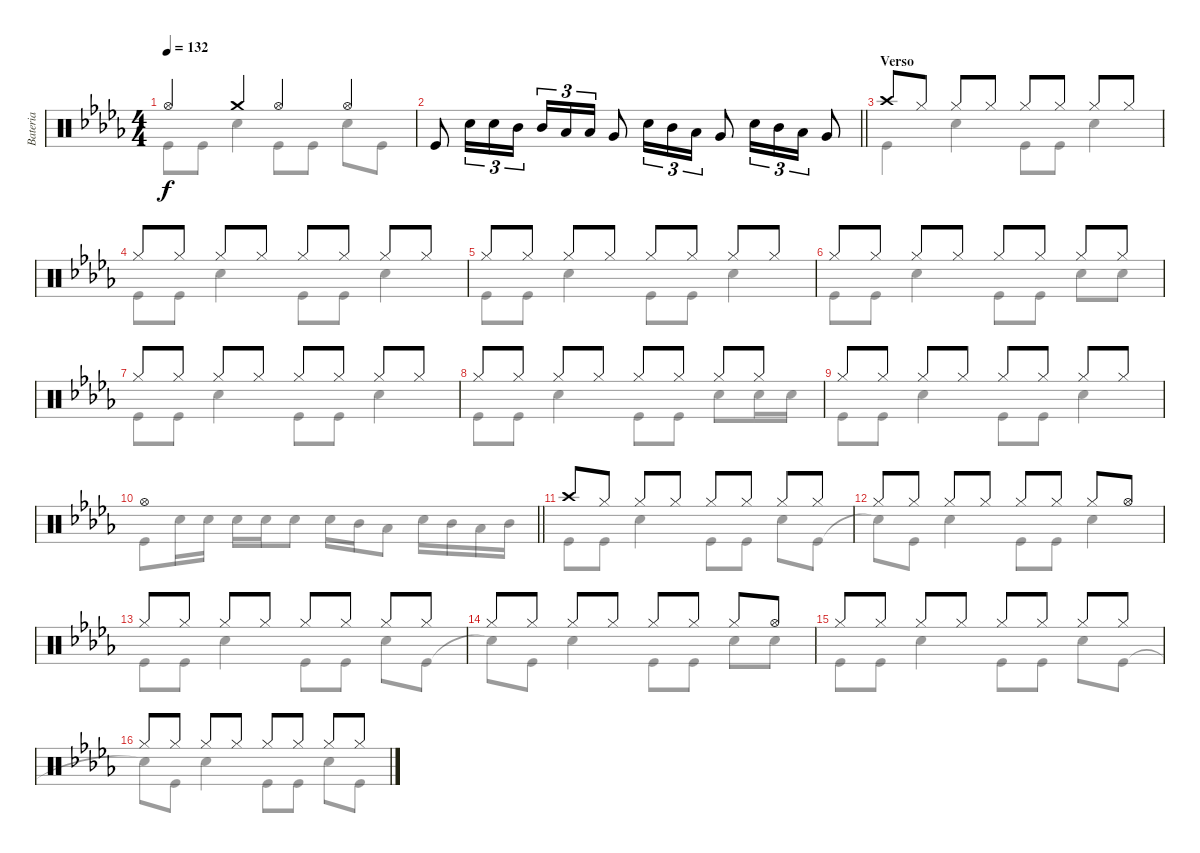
\track ("Bateria" "Bateria") {instrument percussion}
\staff {score}
\articulation defaults
\voice
\ts (4 4)
\tempo 132
\clef neutral
\ks db "Hi-Hat (open)".4{dy f} "Crash medium (hit)".4 "Hi-Hat (open)".4 "Hi-Hat (open)".4
|
\barLineRight lightlight "Kick (hit)".8 "Snare (hit) 2".16{tu (3 2)} "Snare (hit) 2".16{tu (3 2)} "Mid Tom (hit)".16{tu (3 2)} "Mid Tom (hit)".16{tu (3 2)} "Low Tom (hit)".16{tu (3 2)} "Low Tom (hit)".16{tu (3 2)} "Very Low Tom (hit)".8 "Snare (hit) 2".16{tu (3 2)} "Mid Tom (hit)".16{tu (3 2)} "Low Tom (hit)".16{tu (3 2)} "Very Low Tom (hit)".8 "Snare (hit) 2".16{tu (3 2)} "Mid Tom (hit)".16{tu (3 2)} "Low Tom (hit)".16{tu (3 2)} "Very Low Tom (hit)".8
|
\section ("" "Verso")
"Crash high (hit)".8 "Hi-Hat (closed)".8 "Hi-Hat (closed)".8 "Hi-Hat (closed)".8 "Hi-Hat (closed)".8 "Hi-Hat (closed)".8 "Hi-Hat (closed)".8 "Hi-Hat (closed)".8 |
"Hi-Hat (closed)".8 "Hi-Hat (closed)".8 "Hi-Hat (closed)".8 "Hi-Hat (closed)".8 "Hi-Hat (closed)".8 "Hi-Hat (closed)".8 "Hi-Hat (closed)".8 "Hi-Hat (closed)".8 |
"Hi-Hat (closed)".8 "Hi-Hat (closed)".8 "Hi-Hat (closed)".8 "Hi-Hat (closed)".8 "Hi-Hat (closed)".8 "Hi-Hat (closed)".8 "Hi-Hat (closed)".8 "Hi-Hat (closed)".8 |
"Hi-Hat (closed)".8 "Hi-Hat (closed)".8 "Hi-Hat (closed)".8 "Hi-Hat (closed)".8 "Hi-Hat (closed)".8 "Hi-Hat (closed)".8 "Hi-Hat (closed)".8 "Hi-Hat (closed)".8 |
"Hi-Hat (closed)".8 "Hi-Hat (closed)".8 "Hi-Hat (closed)".8 "Hi-Hat (closed)".8 "Hi-Hat (closed)".8 "Hi-Hat (closed)".8 "Hi-Hat (closed)".8 "Hi-Hat (closed)".8 |
"Hi-Hat (closed)".8 "Hi-Hat (closed)".8 "Hi-Hat (closed)".8 "Hi-Hat (closed)".8 "Hi-Hat (closed)".8 "Hi-Hat (closed)".8 "Hi-Hat (closed)".8 "Hi-Hat (closed)".8 |
"Hi-Hat (closed)".8 "Hi-Hat (closed)".8 "Hi-Hat (closed)".8 "Hi-Hat (closed)".8 "Hi-Hat (closed)".8 "Hi-Hat (closed)".8 "Hi-Hat (closed)".8 "Hi-Hat (closed)".8 |
\barLineRight lightlight "Hi-Hat (open)".1
|
"Crash high (hit)".8 "Hi-Hat (closed)".8 "Hi-Hat (closed)".8 "Hi-Hat (closed)".8 "Hi-Hat (closed)".8 "Hi-Hat (closed)".8 "Hi-Hat (closed)".8 "Hi-Hat (closed)".8 |
"Hi-Hat (closed)".8 "Hi-Hat (closed)".8 "Hi-Hat (closed)".8 "Hi-Hat (closed)".8 "Hi-Hat (closed)".8 "Hi-Hat (closed)".8 "Hi-Hat (closed)".8 "Hi-Hat (open)".8 |
"Hi-Hat (closed)".8 "Hi-Hat (closed)".8 "Hi-Hat (closed)".8 "Hi-Hat (closed)".8 "Hi-Hat (closed)".8 "Hi-Hat (closed)".8 "Hi-Hat (closed)".8 "Hi-Hat (closed)".8 |
"Hi-Hat (closed)".8 "Hi-Hat (closed)".8 "Hi-Hat (closed)".8 "Hi-Hat (closed)".8 "Hi-Hat (closed)".8 "Hi-Hat (closed)".8 "Hi-Hat (closed)".8 "Hi-Hat (open)".8 |
"Hi-Hat (closed)".8 "Hi-Hat (closed)".8 "Hi-Hat (closed)".8 "Hi-Hat (closed)".8 "Hi-Hat (closed)".8 "Hi-Hat (closed)".8 "Hi-Hat (closed)".8 "Hi-Hat (closed)".8 |
"Hi-Hat (closed)".8 "Hi-Hat (closed)".8 "Hi-Hat (closed)".8 "Hi-Hat (closed)".8 "Hi-Hat (closed)".8 "Hi-Hat (closed)".8 "Hi-Hat (closed)".8 "Hi-Hat (closed)".8
\voice
\clef neutral
\ottava regular
\simile none
\ks db "Kick (hit)".8{dy f} "Kick (hit)".8 "Snare (hit) 2".4 "Kick (hit)".8 "Kick (hit)".8 "Snare (hit) 2".8 "Kick (hit)".8
|
\barLineRight lightlight
|
"Kick (hit)".4 "Snare (hit) 2".4 "Kick (hit)".8 "Kick (hit)".8 "Snare (hit) 2".4 |
"Kick (hit)".8 "Kick (hit)".8 "Snare (hit) 2".4 "Kick (hit)".8 "Kick (hit)".8 "Snare (hit) 2".4 |
"Kick (hit)".8 "Kick (hit)".8 "Snare (hit) 2".4 "Kick (hit)".8 "Kick (hit)".8 "Snare (hit) 2".4 |
"Kick (hit)".8 "Kick (hit)".8 "Snare (hit) 2".4 "Kick (hit)".8 "Kick (hit)".8 "Snare (hit) 2".8 "Snare (hit) 2".8 |
"Kick (hit)".8 "Kick (hit)".8 "Snare (hit) 2".4 "Kick (hit)".8 "Kick (hit)".8 "Snare (hit) 2".4 |
"Kick (hit)".8 "Kick (hit)".8 "Snare (hit) 2".4 "Kick (hit)".8 "Kick (hit)".8 "Snare (hit) 2".8 "Snare (hit) 2".16 "Snare (hit) 2".16 |
"Kick (hit)".8 "Kick (hit)".8 "Snare (hit) 2".4 "Kick (hit)".8 "Kick (hit)".8 "Snare (hit) 2".4 |
\barLineRight lightlight "Kick (hit)".8 "Snare (hit) 2".16 "Snare (hit) 2".16 "Snare (hit) 2".16 "Snare (hit) 2".16 "Snare (hit) 2".8 "Snare (hit) 2".16 "Mid Tom (hit)".16 "Low Tom (hit)".8 "Snare (hit) 2".16 "Mid Tom (hit)".16 "Low Tom (hit)".16 "Mid Tom (hit)".16
|
"Kick (hit)".8 "Kick (hit)".8 "Snare (hit) 2".4 "Kick (hit)".8 "Kick (hit)".8 "Snare (hit) 2".8 "Kick (hit)".8 |
"Snare (hit)"{t}.8 "Kick (hit)".8 "Snare (hit) 2".4 "Kick (hit)".8 "Kick (hit)".8 "Snare (hit) 2".4 |
"Kick (hit)".8 "Kick (hit)".8 "Snare (hit) 2".4 "Kick (hit)".8 "Kick (hit)".8 "Snare (hit) 2".8 "Kick (hit)".8 |
"Snare (hit)"{t}.8 "Kick (hit)".8 "Snare (hit) 2".4 "Kick (hit)".8 "Kick (hit)".8 "Snare (hit) 2".8 "Snare (hit) 2".8 |
"Kick (hit)".8 "Kick (hit)".8 "Snare (hit) 2".4 "Kick (hit)".8 "Kick (hit)".8 "Snare (hit) 2".8 "Kick (hit)".8 |
"Snare (hit) 2"{t}.8 "Kick (hit)".8 "Snare (hit) 2".4 "Kick (hit)".8 "Kick (hit)".8 "Snare (hit) 2".8 "Kick (hit)".8
